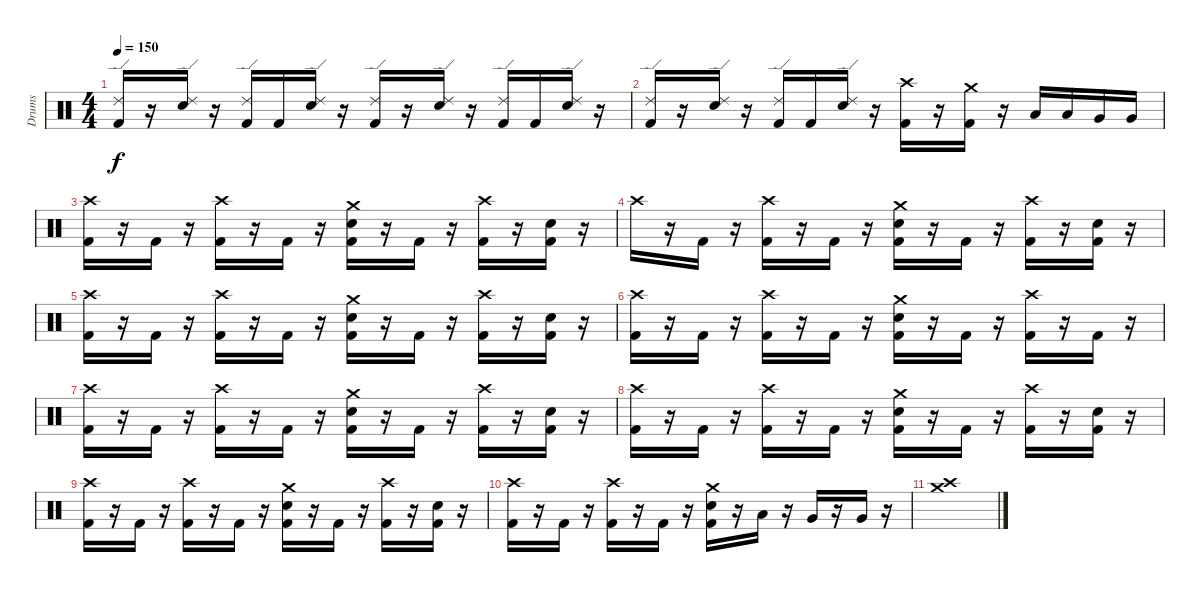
\track ("Drums" "Drums") {instrument percussion}
\staff {score}
\articulation defaults
\ts (4 4)
\tempo 150
\clef neutral
\ks c
("Ride (edge) 2" "Kick (hit) 2").16{dy f} r.16 ("Ride (edge) 2" "Electric Snare (hit)").16 r.16 ("Ride (edge) 2" "Kick (hit) 2").16 "Kick (hit) 2".16 ("Ride (edge) 2" "Electric Snare (hit)").16 r.16 ("Ride (edge) 2" "Kick (hit) 2").16 r.16 ("Ride (edge) 2" "Electric Snare (hit)").16 r.16 ("Ride (edge) 2" "Kick (hit) 2").16 "Kick (hit) 2".16 ("Ride (edge) 2" "Electric Snare (hit)").16 r.16 |
("Ride (edge) 2" "Kick (hit) 2").16 r.16 ("Ride (edge) 2" "Electric Snare (hit)").16 r.16 ("Ride (edge) 2" "Kick (hit) 2").16 "Kick (hit) 2".16 ("Ride (edge) 2" "Electric Snare (hit)").16 r.16 ("Crash high (hit)" "Kick (hit) 2").16 r.16 ("Crash medium (hit)" "Kick (hit) 2").16 r.16 "Low Tom (hit)".16 "Low Tom (hit)".16 "Very Low Tom (hit)".16 "Very Low Tom (hit)".16 |
("Crash high (hit)" "Kick (hit) 2").16 r.16 "Kick (hit) 2".16 r.16 ("Crash high (hit)" "Kick (hit) 2").16 r.16 "Kick (hit) 2".16 r.16 ("Crash medium (hit)" "Electric Snare (hit)" "Kick (hit) 2").16 r.16 "Kick (hit) 2".16 r.16 ("Crash high (hit)" "Kick (hit) 2").16 r.16 ("Electric Snare (hit)" "Kick (hit) 2").16 r.16 |
"Crash high (hit)".16 r.16 "Kick (hit) 2".16 r.16 ("Crash high (hit)" "Kick (hit) 2").16 r.16 "Kick (hit) 2".16 r.16 ("Crash medium (hit)" "Electric Snare (hit)" "Kick (hit) 2").16 r.16 "Kick (hit) 2".16 r.16 ("Crash high (hit)" "Kick (hit) 2").16 r.16 ("Electric Snare (hit)" "Kick (hit) 2").16 r.16 |
("Crash high (hit)" "Kick (hit) 2").16 r.16 "Kick (hit) 2".16 r.16 ("Crash high (hit)" "Kick (hit) 2").16 r.16 "Kick (hit) 2".16 r.16 ("Crash medium (hit)" "Electric Snare (hit)" "Kick (hit) 2").16 r.16 "Kick (hit) 2".16 r.16 ("Crash high (hit)" "Kick (hit) 2").16 r.16 ("Electric Snare (hit)" "Kick (hit) 2").16 r.16 |
("Crash high (hit)" "Kick (hit) 2").16 r.16 "Kick (hit) 2".16 r.16 ("Crash high (hit)" "Kick (hit) 2").16 r.16 "Kick (hit) 2".16 r.16 ("Crash medium (hit)" "Electric Snare (hit)" "Kick (hit) 2").16 r.16 "Kick (hit) 2".16 r.16 ("Crash high (hit)" "Kick (hit) 2").16 r.16 "Kick (hit) 2".16 r.16 |
("Crash high (hit)" "Kick (hit) 2").16 r.16 "Kick (hit) 2".16 r.16 ("Crash high (hit)" "Kick (hit) 2").16 r.16 "Kick (hit) 2".16 r.16 ("Crash medium (hit)" "Electric Snare (hit)" "Kick (hit) 2").16 r.16 "Kick (hit) 2".16 r.16 ("Crash high (hit)" "Kick (hit) 2").16 r.16 ("Electric Snare (hit)" "Kick (hit) 2").16 r.16 |
("Crash high (hit)" "Kick (hit) 2").16 r.16 "Kick (hit) 2".16 r.16 ("Crash high (hit)" "Kick (hit) 2").16 r.16 "Kick (hit) 2".16 r.16 ("Crash medium (hit)" "Electric Snare (hit)" "Kick (hit) 2").16 r.16 "Kick (hit) 2".16 r.16 ("Crash high (hit)" "Kick (hit) 2").16 r.16 ("Electric Snare (hit)" "Kick (hit) 2").16 r.16 |
("Crash high (hit)" "Kick (hit) 2").16 r.16 "Kick (hit) 2".16 r.16 ("Crash high (hit)" "Kick (hit) 2").16 r.16 "Kick (hit) 2".16 r.16 ("Crash medium (hit)" "Electric Snare (hit)" "Kick (hit) 2").16 r.16 "Kick (hit) 2".16 r.16 ("Crash high (hit)" "Kick (hit) 2").16 r.16 ("Electric Snare (hit)" "Kick (hit) 2").16 r.16 |
("Crash high (hit)" "Kick (hit) 2").16 r.16 "Kick (hit) 2".16 r.16 ("Crash high (hit)" "Kick (hit) 2").16 r.16 "Kick (hit) 2".16 r.16 ("Crash medium (hit)" "Electric Snare (hit)" "Kick (hit) 2").16 r.16 "Low Tom (hit)".16 r.16 "Very Low Tom (hit)".16 r.16 "Very Low Tom (hit)".16 r.16 |
("Crash medium (hit)" "Crash high (hit)").1
